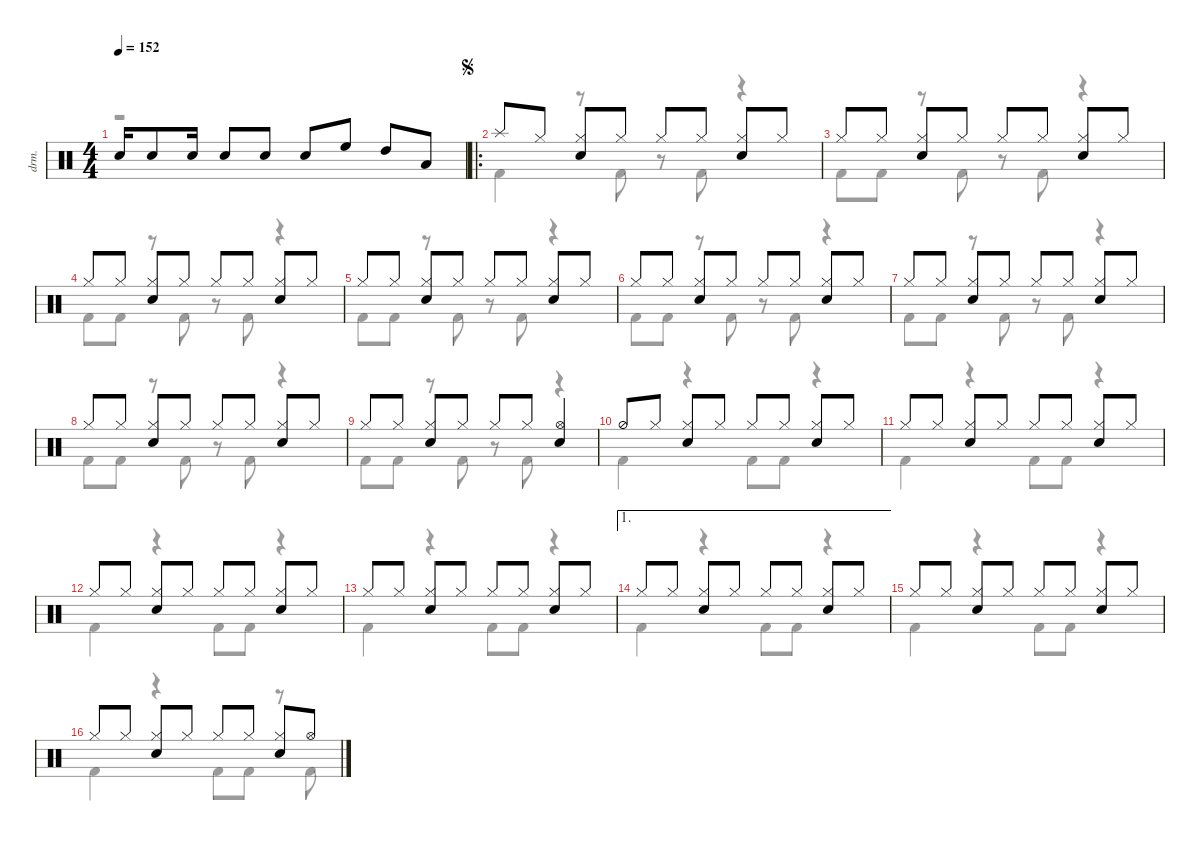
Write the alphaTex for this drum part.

\defaultSystemsLayout 4
\hideDynamics
\bracketExtendMode nobrackets
\track ("Drumkit" "drm.") {instrument percussion}
\staff {score}
\articulation defaults
\voice
\ts (4 4)
\tempo 152
\clef neutral
\ks c "Snare (hit) 2".16{dy mf beam Up} "Snare (hit) 2".8{beam Up} "Snare (hit) 2".16{beam Up} "Snare (hit) 2".8{beam Up} "Snare (hit) 2".8{beam Up} "Snare (hit) 2".8{beam Up} "High Floor Tom (hit)".8{beam Up} "High Tom (hit)".8{beam Up} "Low Tom (hit)".8{beam Up}
|
\ro
\jump segno "Splash (hit)".8{beam Up} "Hi-Hat (closed)".8{beam Up}
("Hi-Hat (closed)" "Snare (hit) 2").8{beam Up} "Hi-Hat (closed)".8{beam Up} "Hi-Hat (closed)".8{beam Up} "Hi-Hat (closed)".8{beam Up} ("Hi-Hat (closed)" "Snare (hit) 2").8{beam Up} "Hi-Hat (closed)".8{beam Up} |
"Hi-Hat (closed)".8{beam Up} "Hi-Hat (closed)".8{beam Up} ("Hi-Hat (closed)" "Snare (hit) 2").8{beam Up} "Hi-Hat (closed)".8{beam Up} "Hi-Hat (closed)".8{beam Up} "Hi-Hat (closed)".8{beam Up} ("Hi-Hat (closed)" "Snare (hit) 2").8{beam Up} "Hi-Hat (closed)".8{beam Up} |
"Hi-Hat (closed)".8{beam Up} "Hi-Hat (closed)".8{beam Up} ("Hi-Hat (closed)" "Snare (hit) 2").8{beam Up} "Hi-Hat (closed)".8{beam Up} "Hi-Hat (closed)".8{beam Up} "Hi-Hat (closed)".8{beam Up} ("Hi-Hat (closed)" "Snare (hit) 2").8{beam Up} "Hi-Hat (closed)".8{beam Up} |
"Hi-Hat (closed)".8{beam Up} "Hi-Hat (closed)".8{beam Up} ("Hi-Hat (closed)" "Snare (hit) 2").8{beam Up} "Hi-Hat (closed)".8{beam Up} "Hi-Hat (closed)".8{beam Up} "Hi-Hat (closed)".8{beam Up} ("Hi-Hat (closed)" "Snare (hit) 2").8{beam Up} "Hi-Hat (closed)".8{beam Up} |
"Hi-Hat (closed)".8{beam Up} "Hi-Hat (closed)".8{beam Up} ("Hi-Hat (closed)" "Snare (hit) 2").8{beam Up} "Hi-Hat (closed)".8{beam Up} "Hi-Hat (closed)".8{beam Up} "Hi-Hat (closed)".8{beam Up} ("Hi-Hat (closed)" "Snare (hit) 2").8{beam Up} "Hi-Hat (closed)".8{beam Up} |
"Hi-Hat (closed)".8{beam Up} "Hi-Hat (closed)".8{beam Up} ("Hi-Hat (closed)" "Snare (hit) 2").8{beam Up} "Hi-Hat (closed)".8{beam Up} "Hi-Hat (closed)".8{beam Up} "Hi-Hat (closed)".8{beam Up} ("Hi-Hat (closed)" "Snare (hit) 2").8{beam Up} "Hi-Hat (closed)".8{beam Up} |
"Hi-Hat (closed)".8{beam Up} "Hi-Hat (closed)".8{beam Up} ("Hi-Hat (closed)" "Snare (hit) 2").8{beam Up} "Hi-Hat (closed)".8{beam Up} "Hi-Hat (closed)".8{beam Up} "Hi-Hat (closed)".8{beam Up} ("Hi-Hat (closed)" "Snare (hit) 2").8{beam Up} "Hi-Hat (closed)".8{beam Up} |
"Hi-Hat (closed)".8{beam Up} "Hi-Hat (closed)".8{beam Up} ("Hi-Hat (closed)" "Snare (hit) 2").8{beam Up} "Hi-Hat (closed)".8{beam Up} "Hi-Hat (closed)".8{beam Up} "Hi-Hat (closed)".8{beam Up} ("Hi-Hat (open)" "Snare (hit) 2").4{beam Up} |
"Hi-Hat (half)".8{beam Up} "Hi-Hat (closed)".8{beam Up} ("Hi-Hat (closed)" "Snare (hit) 2").8{beam Up} "Hi-Hat (closed)".8{beam Up} "Hi-Hat (closed)".8{beam Up} "Hi-Hat (closed)".8{beam Up} ("Hi-Hat (closed)" "Snare (hit) 2").8{beam Up} "Hi-Hat (closed)".8{beam Up} |
"Hi-Hat (closed)".8{beam Up} "Hi-Hat (closed)".8{beam Up} ("Hi-Hat (closed)" "Snare (hit) 2").8{beam Up} "Hi-Hat (closed)".8{beam Up} "Hi-Hat (closed)".8{beam Up} "Hi-Hat (closed)".8{beam Up} ("Hi-Hat (closed)" "Snare (hit) 2").8{beam Up} "Hi-Hat (closed)".8{beam Up} |
"Hi-Hat (closed)".8{beam Up} "Hi-Hat (closed)".8{beam Up} ("Hi-Hat (closed)" "Snare (hit) 2").8{beam Up} "Hi-Hat (closed)".8{beam Up} "Hi-Hat (closed)".8{beam Up} "Hi-Hat (closed)".8{beam Up} ("Hi-Hat (closed)" "Snare (hit) 2").8{beam Up} "Hi-Hat (closed)".8{beam Up} |
"Hi-Hat (closed)".8{beam Up} "Hi-Hat (closed)".8{beam Up} ("Hi-Hat (closed)" "Snare (hit) 2").8{beam Up} "Hi-Hat (closed)".8{beam Up} "Hi-Hat (closed)".8{beam Up} "Hi-Hat (closed)".8{beam Up} ("Hi-Hat (closed)" "Snare (hit) 2").8{beam Up} "Hi-Hat (closed)".8{beam Up} |
\ae 1 "Hi-Hat (closed)".8{beam Up} "Hi-Hat (closed)".8{beam Up}
("Hi-Hat (closed)" "Snare (hit) 2").8{beam Up} "Hi-Hat (closed)".8{beam Up} "Hi-Hat (closed)".8{beam Up} "Hi-Hat (closed)".8{beam Up} ("Hi-Hat (closed)" "Snare (hit) 2").8{beam Up} "Hi-Hat (closed)".8{beam Up} |
"Hi-Hat (closed)".8{beam Up} "Hi-Hat (closed)".8{beam Up} ("Hi-Hat (closed)" "Snare (hit) 2").8{beam Up} "Hi-Hat (closed)".8{beam Up} "Hi-Hat (closed)".8{beam Up} "Hi-Hat (closed)".8{beam Up} ("Hi-Hat (closed)" "Snare (hit) 2").8{beam Up} "Hi-Hat (closed)".8{beam Up} |
"Hi-Hat (closed)".8{beam Up} "Hi-Hat (closed)".8{beam Up} ("Hi-Hat (closed)" "Snare (hit) 2").8{beam Up} "Hi-Hat (closed)".8{beam Up} "Hi-Hat (closed)".8{beam Up} "Hi-Hat (closed)".8{beam Up} ("Hi-Hat (closed)" "Snare (hit) 2").8{beam Up} "Hi-Hat (open)".8{beam Up}
\voice
\clef neutral
\ottava regular
\simile none
\ks c
r.1{dy mf beam Down} |
"Kick (hit) 2".4{beam Down} r.8{beam Down} "Kick (hit) 2".8{beam Down} r.8{beam Down} "Kick (hit) 2".8{beam Down} r.4{beam Down} |
"Kick (hit) 2".8{beam Down} "Kick (hit) 2".8{beam Down} r.8{beam Down} "Kick (hit) 2".8{beam Down} r.8{beam Down} "Kick (hit) 2".8{beam Down} r.4{beam Down} |
"Kick (hit) 2".8{beam Down} "Kick (hit) 2".8{beam Down} r.8{beam Down} "Kick (hit) 2".8{beam Down} r.8{beam Down} "Kick (hit) 2".8{beam Down} r.4{beam Down} |
"Kick (hit) 2".8{beam Down} "Kick (hit) 2".8{beam Down} r.8{beam Down} "Kick (hit) 2".8{beam Down} r.8{beam Down} "Kick (hit) 2".8{beam Down} r.4{beam Down} |
"Kick (hit) 2".8{beam Down} "Kick (hit) 2".8{beam Down} r.8{beam Down} "Kick (hit) 2".8{beam Down} r.8{beam Down} "Kick (hit) 2".8{beam Down} r.4{beam Down} |
"Kick (hit) 2".8{beam Down} "Kick (hit) 2".8{beam Down} r.8{beam Down} "Kick (hit) 2".8{beam Down} r.8{beam Down} "Kick (hit) 2".8{beam Down} r.4{beam Down} |
"Kick (hit) 2".8{beam Down} "Kick (hit) 2".8{beam Down} r.8{beam Down} "Kick (hit) 2".8{beam Down} r.8{beam Down} "Kick (hit) 2".8{beam Down} r.4{beam Down} |
"Kick (hit) 2".8{beam Down} "Kick (hit) 2".8{beam Down} r.8{beam Down} "Kick (hit) 2".8{beam Down} r.8{beam Down} "Kick (hit) 2".8{beam Down} r.4{beam Down} |
"Kick (hit) 2".4{beam Down} r.4{beam Down} "Kick (hit) 2".8{beam Down} "Kick (hit) 2".8{beam Down} r.4{beam Down} |
"Kick (hit) 2".4{beam Down} r.4{beam Down} "Kick (hit) 2".8{beam Down} "Kick (hit) 2".8{beam Down} r.4{beam Down} |
"Kick (hit) 2".4{beam Down} r.4{beam Down} "Kick (hit) 2".8{beam Down} "Kick (hit) 2".8{beam Down} r.4{beam Down} |
"Kick (hit) 2".4{beam Down} r.4{beam Down} "Kick (hit) 2".8{beam Down} "Kick (hit) 2".8{beam Down} r.4{beam Down} |
"Kick (hit) 2".4{beam Down} r.4{beam Down} "Kick (hit) 2".8{beam Down} "Kick (hit) 2".8{beam Down} r.4{beam Down} |
"Kick (hit) 2".4{beam Down} r.4{beam Down} "Kick (hit) 2".8{beam Down} "Kick (hit) 2".8{beam Down} r.4{beam Down} |
"Kick (hit) 2".4{beam Down} r.4{beam Down} "Kick (hit) 2".8{beam Down} "Kick (hit) 2".8{beam Down} r.8{beam Down} "Kick (hit) 2".8{beam Down}
